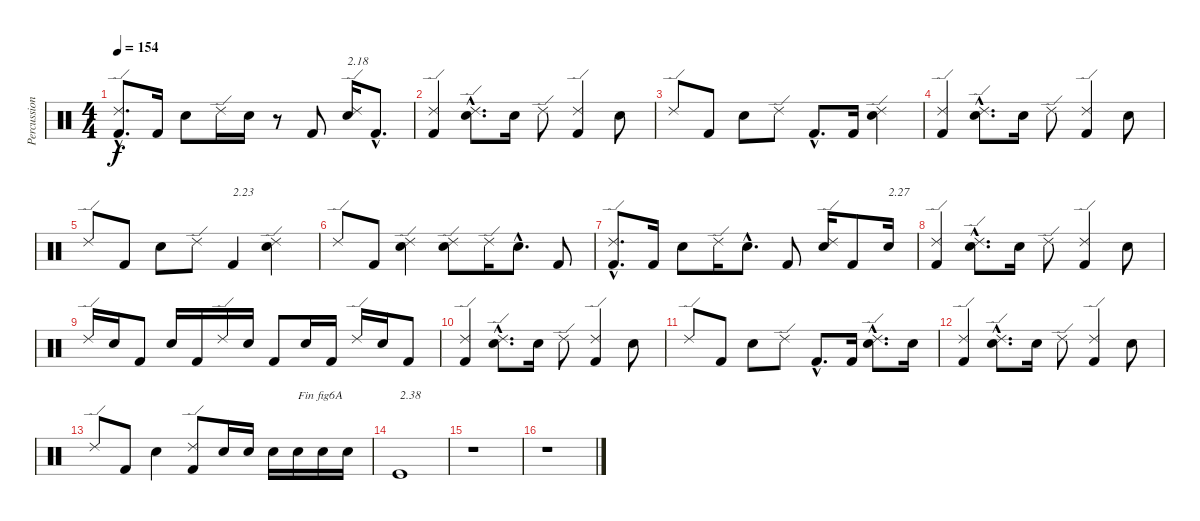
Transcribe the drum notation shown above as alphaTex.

\track ("Percussions" "Percussion") {instrument percussion}
\staff {score}
\articulation defaults
\ts (4 4)
\tempo 154
\clef neutral
\ks c
("Kick (hit) 2"{hac} "Ride (edge) 2"{hac}).8{d dy f} "Kick (hit) 2".16 "Electric Snare (hit)".8 "Ride (edge) 2".16 "Electric Snare (hit)".16 r.8 "Kick (hit) 2".8 ("Electric Snare (hit)" "Ride (edge) 2").16{txt "2.18"} "Kick (hit) 2"{hac}.8{d} |
("Kick (hit) 2" "Ride (edge) 2").4 ("Electric Snare (hit)"{hac} "Ride (edge) 2"{hac}).8{d} "Electric Snare (hit)".16 "Ride (edge) 2".8 ("Kick (hit) 2" "Ride (edge) 2").4 "Electric Snare (hit)".8 |
"Ride (edge) 2".8 "Kick (hit) 2".8 "Electric Snare (hit)".8 "Ride (edge) 2".8 "Kick (hit) 2"{hac}.8{d} "Kick (hit) 2".16 ("Electric Snare (hit)" "Ride (edge) 2").4 |
("Kick (hit) 2" "Ride (edge) 2").4 ("Electric Snare (hit)"{hac} "Ride (edge) 2"{hac}).8{d} "Electric Snare (hit)".16 "Ride (edge) 2".8 ("Kick (hit) 2" "Ride (edge) 2").4 "Electric Snare (hit)".8 |
"Ride (edge) 2".8 "Kick (hit) 2".8 "Electric Snare (hit)".8 "Ride (edge) 2".8 "Kick (hit) 2".4{txt "2.23"} ("Electric Snare (hit)" "Ride (edge) 2").4 |
"Ride (edge) 2".8 "Kick (hit) 2".8 ("Electric Snare (hit)" "Ride (edge) 2").4 ("Electric Snare (hit)" "Ride (edge) 2").8 "Ride (edge) 2".16 "Electric Snare (hit)"{hac}.8{d} "Kick (hit) 2".8 |
("Kick (hit) 2"{hac} "Ride (edge) 2"{hac}).8{d} "Kick (hit) 2".16 "Electric Snare (hit)".8 "Ride (edge) 2".16 "Electric Snare (hit)"{hac}.8{d} "Kick (hit) 2".8 ("Electric Snare (hit)" "Ride (edge) 2").16 "Kick (hit) 2".8 "Electric Snare (hit)".16{txt "2.27"} |
("Kick (hit) 2" "Ride (edge) 2").4 ("Electric Snare (hit)"{hac} "Ride (edge) 2"{hac}).8{d} "Electric Snare (hit)".16 "Ride (edge) 2".8 ("Kick (hit) 2" "Ride (edge) 2").4 "Electric Snare (hit)".8 |
"Ride (edge) 2".16 "Electric Snare (hit)".16 "Kick (hit) 2".8 "Electric Snare (hit)".16 "Kick (hit) 2".16 "Ride (edge) 2".16 "Electric Snare (hit)".16 "Kick (hit) 2".8 "Electric Snare (hit)".16 "Kick (hit) 2".16 "Ride (edge) 2".16 "Electric Snare (hit)".16 "Kick (hit) 2".8 |
("Kick (hit) 2" "Ride (edge) 2").4 ("Electric Snare (hit)"{hac} "Ride (edge) 2"{hac}).8{d} "Electric Snare (hit)".16 "Ride (edge) 2".8 ("Kick (hit) 2" "Ride (edge) 2").4 "Electric Snare (hit)".8 |
"Ride (edge) 2".8 "Kick (hit) 2".8 "Electric Snare (hit)".8 "Ride (edge) 2".8 "Kick (hit) 2"{hac}.8{d} "Kick (hit) 2".16 ("Electric Snare (hit)"{hac} "Ride (edge) 2"{hac}).8{d} "Electric Snare (hit)".16 |
("Kick (hit) 2" "Ride (edge) 2").4 ("Electric Snare (hit)"{hac} "Ride (edge) 2"{hac}).8{d} "Electric Snare (hit)".16 "Ride (edge) 2".8 ("Kick (hit) 2" "Ride (edge) 2").4 "Electric Snare (hit)".8 |
"Ride (edge) 2".8 "Kick (hit) 2".8 "Electric Snare (hit)".4 ("Kick (hit) 2" "Ride (edge) 2").8 "Electric Snare (hit)".16 "Electric Snare (hit)".16 "Electric Snare (hit)".16 "Electric Snare (hit)".16{txt "Fin fig6A"} "Electric Snare (hit)".16 "Electric Snare (hit)".16 |
"Kick (hit)".1{txt "2.38"} |
r.1 |
r.1
